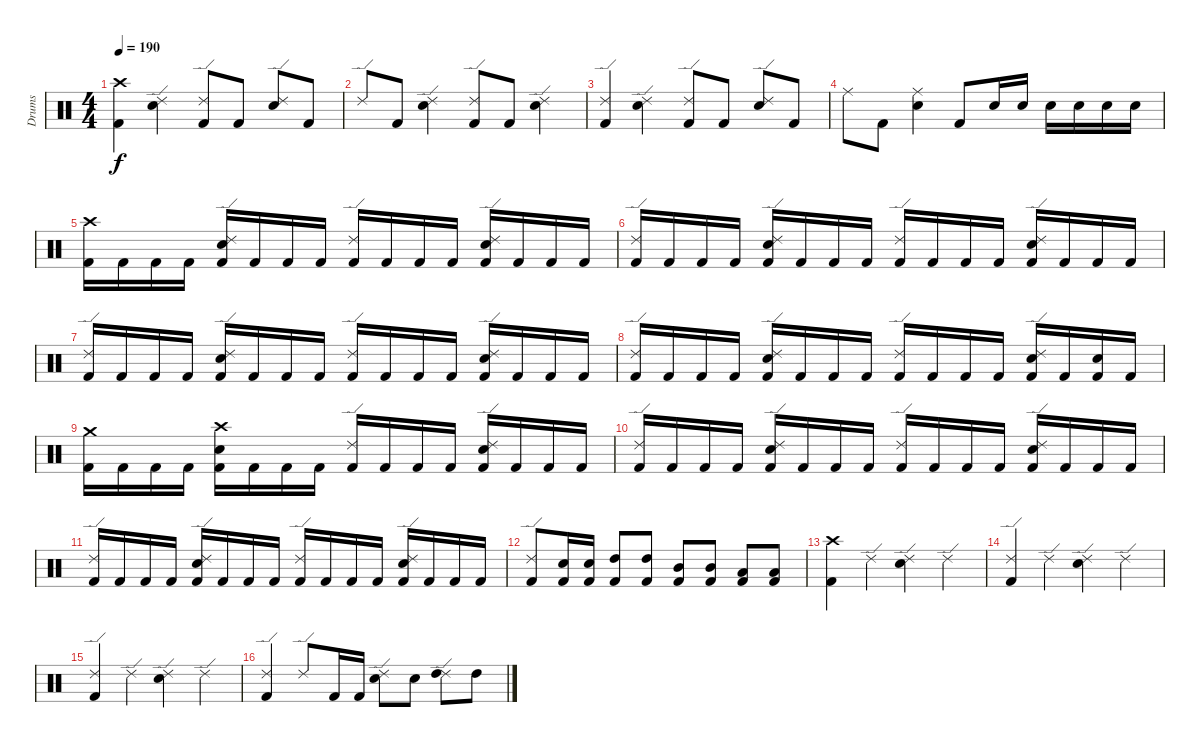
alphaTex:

\track ("Drums" "Drums") {instrument percussion}
\staff {score}
\articulation defaults
\ts (4 4)
\tempo 190
\clef neutral
\ks c
("Crash high (hit)" "Kick (hit) 2").4{dy f} ("Ride (edge) 2" "Snare (hit) 2").4 ("Ride (edge) 2" "Kick (hit) 2").8 "Kick (hit) 2".8 ("Ride (edge) 2" "Snare (hit) 2").8 "Kick (hit) 2".8 |
"Ride (edge) 2".8 "Kick (hit) 2".8 ("Ride (edge) 2" "Snare (hit) 2").4 ("Ride (edge) 2" "Kick (hit) 2").8 "Kick (hit) 2".8 ("Ride (edge) 2" "Snare (hit) 2").4 |
("Ride (edge) 2" "Kick (hit) 2").4 ("Ride (edge) 2" "Snare (hit) 2").4 ("Ride (edge) 2" "Kick (hit) 2").8 "Kick (hit) 2".8 ("Ride (edge) 2" "Snare (hit) 2").8 "Kick (hit) 2".8 |
"Ride (middle)".8 "Kick (hit) 2".8 ("Ride (middle)" "Snare (hit) 2").4 "Kick (hit) 2".8 "Snare (hit) 2".16 "Snare (hit) 2".16 "Snare (hit) 2".16 "Snare (hit) 2".16 "Snare (hit) 2".16 "Snare (hit) 2".16 |
("Crash high (hit)" "Kick (hit) 2").16 "Kick (hit) 2".16 "Kick (hit) 2".16 "Kick (hit) 2".16 ("Ride (edge) 2" "Snare (hit) 2" "Kick (hit) 2").16 "Kick (hit) 2".16 "Kick (hit) 2".16 "Kick (hit) 2".16 ("Ride (edge) 2" "Kick (hit) 2").16 "Kick (hit) 2".16 "Kick (hit) 2".16 "Kick (hit) 2".16 ("Ride (edge) 2" "Snare (hit) 2" "Kick (hit) 2").16 "Kick (hit) 2".16 "Kick (hit) 2".16 "Kick (hit) 2".16 |
("Ride (edge) 2" "Kick (hit) 2").16 "Kick (hit) 2".16 "Kick (hit) 2".16 "Kick (hit) 2".16 ("Ride (edge) 2" "Snare (hit) 2" "Kick (hit) 2").16 "Kick (hit) 2".16 "Kick (hit) 2".16 "Kick (hit) 2".16 ("Ride (edge) 2" "Kick (hit) 2").16 "Kick (hit) 2".16 "Kick (hit) 2".16 "Kick (hit) 2".16 ("Ride (edge) 2" "Snare (hit) 2" "Kick (hit) 2").16 "Kick (hit) 2".16 "Kick (hit) 2".16 "Kick (hit) 2".16 |
("Ride (edge) 2" "Kick (hit) 2").16 "Kick (hit) 2".16 "Kick (hit) 2".16 "Kick (hit) 2".16 ("Ride (edge) 2" "Snare (hit) 2" "Kick (hit) 2").16 "Kick (hit) 2".16 "Kick (hit) 2".16 "Kick (hit) 2".16 ("Ride (edge) 2" "Kick (hit) 2").16 "Kick (hit) 2".16 "Kick (hit) 2".16 "Kick (hit) 2".16 ("Ride (edge) 2" "Snare (hit) 2" "Kick (hit) 2").16 "Kick (hit) 2".16 "Kick (hit) 2".16 "Kick (hit) 2".16 |
("Ride (edge) 2" "Kick (hit) 2").16 "Kick (hit) 2".16 "Kick (hit) 2".16 "Kick (hit) 2".16 ("Ride (edge) 2" "Snare (hit) 2" "Kick (hit) 2").16 "Kick (hit) 2".16 "Kick (hit) 2".16 "Kick (hit) 2".16 ("Ride (edge) 2" "Kick (hit) 2").16 "Kick (hit) 2".16 "Kick (hit) 2".16 "Kick (hit) 2".16 ("Ride (edge) 2" "Snare (hit) 2" "Kick (hit) 2").16 "Kick (hit) 2".16 ("Snare (hit) 2" "Kick (hit) 2").16 "Kick (hit) 2".16 |
("Crash medium (hit)" "Kick (hit) 2").16 "Kick (hit) 2".16 "Kick (hit) 2".16 "Kick (hit) 2".16 ("Crash high (hit)" "Snare (hit) 2" "Kick (hit) 2").16 "Kick (hit) 2".16 "Kick (hit) 2".16 "Kick (hit) 2".16 ("Ride (edge) 2" "Kick (hit) 2").16 "Kick (hit) 2".16 "Kick (hit) 2".16 "Kick (hit) 2".16 ("Ride (edge) 2" "Snare (hit) 2" "Kick (hit) 2").16 "Kick (hit) 2".16 "Kick (hit) 2".16 "Kick (hit) 2".16 |
("Ride (edge) 2" "Kick (hit) 2").16 "Kick (hit) 2".16 "Kick (hit) 2".16 "Kick (hit) 2".16 ("Ride (edge) 2" "Snare (hit) 2" "Kick (hit) 2").16 "Kick (hit) 2".16 "Kick (hit) 2".16 "Kick (hit) 2".16 ("Ride (edge) 2" "Kick (hit) 2").16 "Kick (hit) 2".16 "Kick (hit) 2".16 "Kick (hit) 2".16 ("Ride (edge) 2" "Snare (hit) 2" "Kick (hit) 2").16 "Kick (hit) 2".16 "Kick (hit) 2".16 "Kick (hit) 2".16 |
("Ride (edge) 2" "Kick (hit) 2").16 "Kick (hit) 2".16 "Kick (hit) 2".16 "Kick (hit) 2".16 ("Ride (edge) 2" "Snare (hit) 2" "Kick (hit) 2").16 "Kick (hit) 2".16 "Kick (hit) 2".16 "Kick (hit) 2".16 ("Ride (edge) 2" "Kick (hit) 2").16 "Kick (hit) 2".16 "Kick (hit) 2".16 "Kick (hit) 2".16 ("Ride (edge) 2" "Snare (hit) 2" "Kick (hit) 2").16 "Kick (hit) 2".16 "Kick (hit) 2".16 "Kick (hit) 2".16 |
("Ride (edge) 2" "Kick (hit) 2").8 ("Snare (hit) 2" "Kick (hit) 2").16 ("Snare (hit) 2" "Kick (hit) 2").16 ("High Tom (hit)" "Kick (hit) 2").8 ("High Tom (hit)" "Kick (hit) 2").8 ("Mid Tom (hit)" "Kick (hit) 2").8 ("Mid Tom (hit)" "Kick (hit) 2").8 ("Low Tom (hit)" "Kick (hit) 2").8 ("Low Tom (hit)" "Kick (hit) 2").8 |
("Crash high (hit)" "Kick (hit) 2").4 "Ride (edge) 2".4 ("Ride (edge) 2" "Snare (hit) 2").4 "Ride (edge) 2".4 |
("Ride (edge) 2" "Kick (hit) 2").4 "Ride (edge) 2".4 ("Ride (edge) 2" "Snare (hit) 2").4 "Ride (edge) 2".4 |
("Ride (edge) 2" "Kick (hit) 2").4 "Ride (edge) 2".4 ("Ride (edge) 2" "Snare (hit) 2").4 "Ride (edge) 2".4 |
("Ride (edge) 2" "Kick (hit) 2").4 "Ride (edge) 2".8 "Kick (hit) 2".16 "Kick (hit) 2".16 ("Ride (edge) 2" "Snare (hit) 2").8 "Snare (hit) 2".8 ("Ride (edge) 2" "High Tom (hit)").8 "High Tom (hit)".8
